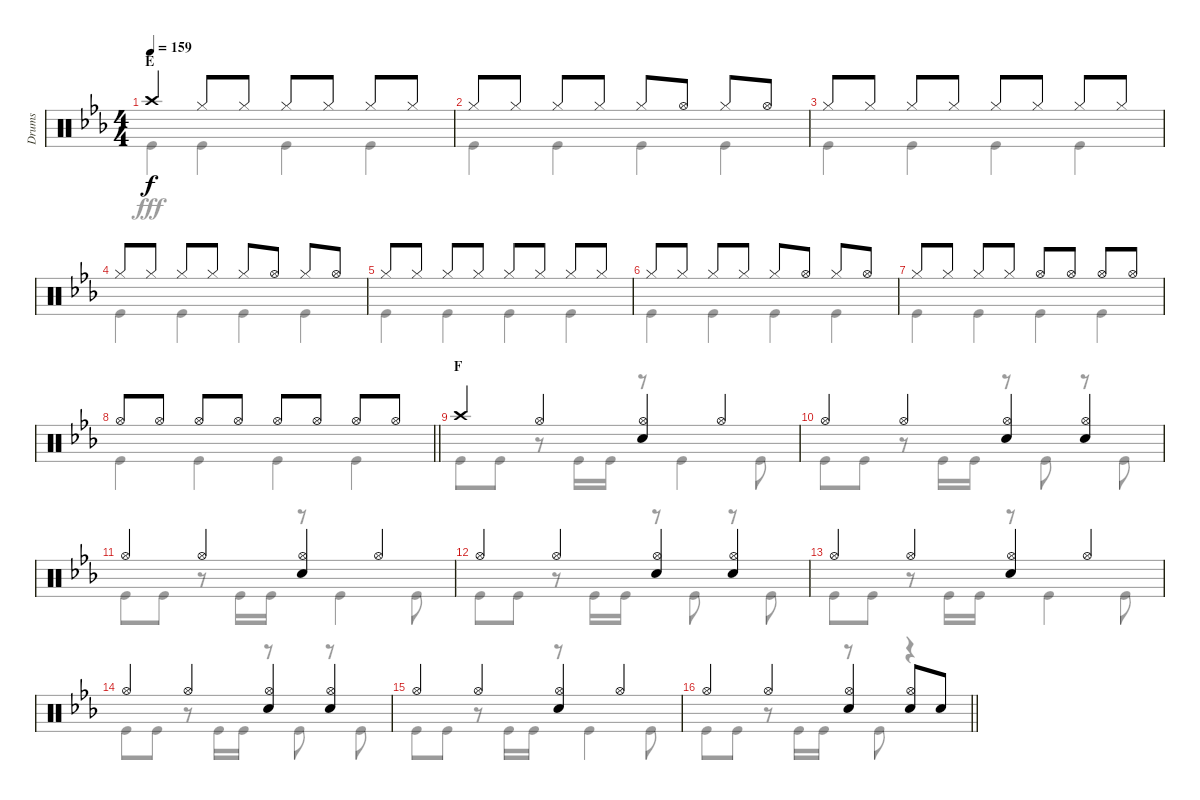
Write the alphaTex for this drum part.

\track ("Drums" "Drums") {instrument percussion}
\staff {score}
\articulation defaults
\voice
\ts (4 4)
\section ("" "E")
\tempo 159
\clef neutral
\ks eb "Crash high (hit)".4{dy f} "Hi-Hat (closed)".8 "Hi-Hat (closed)".8 "Hi-Hat (closed)".8 "Hi-Hat (closed)".8 "Hi-Hat (closed)".8 "Hi-Hat (closed)".8
|
"Hi-Hat (closed)".8 "Hi-Hat (closed)".8 "Hi-Hat (closed)".8 "Hi-Hat (closed)".8 "Hi-Hat (closed)".8 "Hi-Hat (open)".8 "Hi-Hat (closed)".8 "Hi-Hat (open)".8 |
"Hi-Hat (closed)".8 "Hi-Hat (closed)".8 "Hi-Hat (closed)".8 "Hi-Hat (closed)".8 "Hi-Hat (closed)".8 "Hi-Hat (closed)".8 "Hi-Hat (closed)".8 "Hi-Hat (closed)".8 |
"Hi-Hat (closed)".8 "Hi-Hat (closed)".8 "Hi-Hat (closed)".8 "Hi-Hat (closed)".8 "Hi-Hat (closed)".8 "Hi-Hat (open)".8 "Hi-Hat (closed)".8 "Hi-Hat (open)".8 |
"Hi-Hat (closed)".8 "Hi-Hat (closed)".8 "Hi-Hat (closed)".8 "Hi-Hat (closed)".8 "Hi-Hat (closed)".8 "Hi-Hat (closed)".8 "Hi-Hat (closed)".8 "Hi-Hat (closed)".8 |
"Hi-Hat (closed)".8 "Hi-Hat (closed)".8 "Hi-Hat (closed)".8 "Hi-Hat (closed)".8 "Hi-Hat (closed)".8 "Hi-Hat (open)".8 "Hi-Hat (closed)".8 "Hi-Hat (open)".8 |
"Hi-Hat (closed)".8 "Hi-Hat (closed)".8 "Hi-Hat (closed)".8 "Hi-Hat (closed)".8 "Hi-Hat (open)".8 "Hi-Hat (open)".8 "Hi-Hat (open)".8 "Hi-Hat (open)".8 |
\barLineRight lightlight "Hi-Hat (open)".8 "Hi-Hat (open)".8 "Hi-Hat (open)".8 "Hi-Hat (open)".8 "Hi-Hat (open)".8 "Hi-Hat (open)".8 "Hi-Hat (open)".8 "Hi-Hat (open)".8
|
\section ("" "F")
"Crash high (hit)".4 "Hi-Hat (open)".4 ("Hi-Hat (open)" "Snare (hit) 2").4 "Hi-Hat (open)".4 |
"Hi-Hat (open)".4 "Hi-Hat (open)".4 ("Hi-Hat (open)" "Snare (hit) 2").4 ("Hi-Hat (open)" "Snare (hit) 2").4 |
"Hi-Hat (open)".4 "Hi-Hat (open)".4 ("Hi-Hat (open)" "Snare (hit) 2").4 "Hi-Hat (open)".4 |
"Hi-Hat (open)".4 "Hi-Hat (open)".4 ("Hi-Hat (open)" "Snare (hit) 2").4 ("Hi-Hat (open)" "Snare (hit) 2").4 |
"Hi-Hat (open)".4 "Hi-Hat (open)".4 ("Hi-Hat (open)" "Snare (hit) 2").4 "Hi-Hat (open)".4 |
"Hi-Hat (open)".4 "Hi-Hat (open)".4 ("Hi-Hat (open)" "Snare (hit) 2").4 ("Hi-Hat (open)" "Snare (hit) 2").4 |
"Hi-Hat (open)".4 "Hi-Hat (open)".4 ("Hi-Hat (open)" "Snare (hit) 2").4 "Hi-Hat (open)".4 |
\barLineRight lightlight "Hi-Hat (open)".4 "Hi-Hat (open)".4
("Hi-Hat (open)" "Snare (hit) 2").4 ("Hi-Hat (open)" "Snare (hit) 2").8 "Snare (hit) 2".8
\voice
\clef neutral
\ottava regular
\simile none
\ks eb "Kick (hit)".4{dy fff} "Kick (hit)".4 "Kick (hit)".4 "Kick (hit)".4
|
"Kick (hit)".4 "Kick (hit)".4 "Kick (hit)".4 "Kick (hit)".4 |
"Kick (hit)".4 "Kick (hit)".4 "Kick (hit)".4 "Kick (hit)".4 |
"Kick (hit)".4 "Kick (hit)".4 "Kick (hit)".4 "Kick (hit)".4 |
"Kick (hit)".4 "Kick (hit)".4 "Kick (hit)".4 "Kick (hit)".4 |
"Kick (hit)".4 "Kick (hit)".4 "Kick (hit)".4 "Kick (hit)".4 |
"Kick (hit)".4 "Kick (hit)".4 "Kick (hit)".4 "Kick (hit)".4 |
\barLineRight lightlight "Kick (hit)".4 "Kick (hit)".4 "Kick (hit)".4 "Kick (hit)".4
|
"Kick (hit)".8 "Kick (hit)".8 r.8 "Kick (hit)".16 "Kick (hit)".16 r.8 "Kick (hit)".4 "Kick (hit)".8 |
"Kick (hit)".8 "Kick (hit)".8 r.8 "Kick (hit)".16 "Kick (hit)".16 r.8 "Kick (hit)".8 r.8 "Kick (hit)".8 |
"Kick (hit)".8 "Kick (hit)".8 r.8 "Kick (hit)".16 "Kick (hit)".16 r.8 "Kick (hit)".4 "Kick (hit)".8 |
"Kick (hit)".8 "Kick (hit)".8 r.8 "Kick (hit)".16 "Kick (hit)".16 r.8 "Kick (hit)".8 r.8 "Kick (hit)".8 |
"Kick (hit)".8 "Kick (hit)".8 r.8 "Kick (hit)".16 "Kick (hit)".16 r.8 "Kick (hit)".4 "Kick (hit)".8 |
"Kick (hit)".8 "Kick (hit)".8 r.8 "Kick (hit)".16 "Kick (hit)".16 r.8 "Kick (hit)".8 r.8 "Kick (hit)".8 |
"Kick (hit)".8 "Kick (hit)".8 r.8 "Kick (hit)".16 "Kick (hit)".16 r.8 "Kick (hit)".4 "Kick (hit)".8 |
\barLineRight lightlight "Kick (hit)".8 "Kick (hit)".8
r.8 "Kick (hit)".16 "Kick (hit)".16 r.8 "Kick (hit)".8 r.4
